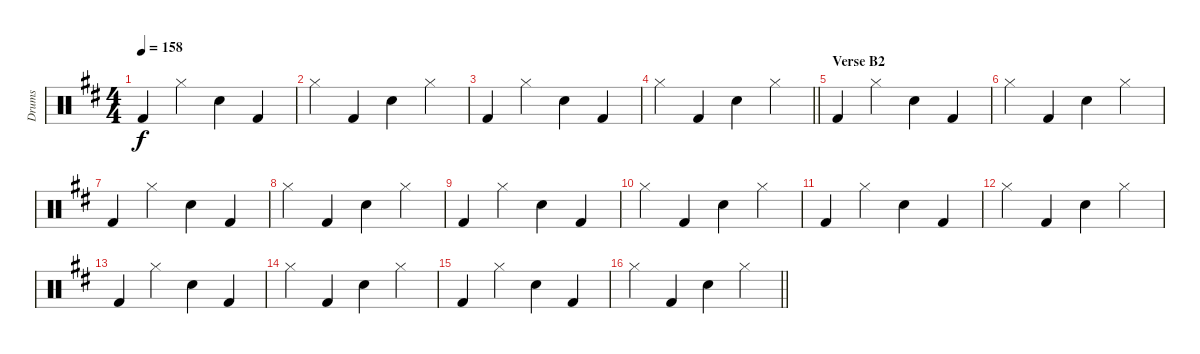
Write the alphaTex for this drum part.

\track ("Drums" "Drums") {instrument percussion}
\staff {score}
\articulation defaults
\ts (4 4)
\tempo 158
\clef neutral
\ks d "Kick (hit) 2".4{dy f} "Hi-Hat (closed)".4 "Snare (hit) 2".4 "Kick (hit) 2".4
|
"Hi-Hat (closed)".4 "Kick (hit) 2".4 "Snare (hit) 2".4 "Hi-Hat (closed)".4 |
"Kick (hit) 2".4 "Hi-Hat (closed)".4 "Snare (hit) 2".4 "Kick (hit) 2".4 |
\barLineRight lightlight "Hi-Hat (closed)".4 "Kick (hit) 2".4 "Snare (hit) 2".4 "Hi-Hat (closed)".4
|
\section ("" "Verse B2")
"Kick (hit) 2".4 "Hi-Hat (closed)".4 "Snare (hit) 2".4 "Kick (hit) 2".4 |
"Hi-Hat (closed)".4 "Kick (hit) 2".4 "Snare (hit) 2".4 "Hi-Hat (closed)".4 |
"Kick (hit) 2".4 "Hi-Hat (closed)".4 "Snare (hit) 2".4 "Kick (hit) 2".4 |
"Hi-Hat (closed)".4 "Kick (hit) 2".4 "Snare (hit) 2".4 "Hi-Hat (closed)".4 |
"Kick (hit) 2".4 "Hi-Hat (closed)".4 "Snare (hit) 2".4 "Kick (hit) 2".4 |
"Hi-Hat (closed)".4 "Kick (hit) 2".4 "Snare (hit) 2".4 "Hi-Hat (closed)".4 |
"Kick (hit) 2".4 "Hi-Hat (closed)".4 "Snare (hit) 2".4 "Kick (hit) 2".4 |
"Hi-Hat (closed)".4 "Kick (hit) 2".4 "Snare (hit) 2".4 "Hi-Hat (closed)".4 |
"Kick (hit) 2".4 "Hi-Hat (closed)".4 "Snare (hit) 2".4 "Kick (hit) 2".4 |
"Hi-Hat (closed)".4 "Kick (hit) 2".4 "Snare (hit) 2".4 "Hi-Hat (closed)".4 |
"Kick (hit) 2".4 "Hi-Hat (closed)".4 "Snare (hit) 2".4 "Kick (hit) 2".4 |
\barLineRight lightlight "Hi-Hat (closed)".4 "Kick (hit) 2".4 "Snare (hit) 2".4 "Hi-Hat (closed)".4
